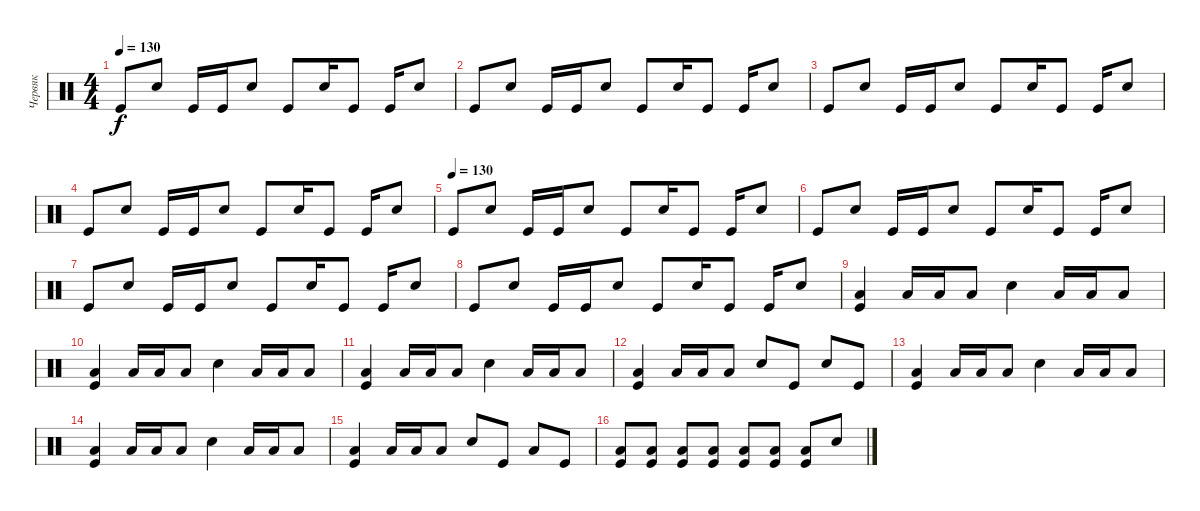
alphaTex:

\track ("Червяк" "Червяк") {instrument percussion}
\staff {score}
\articulation defaults
\ts (4 4)
\tempo 130
\clef neutral
\ks c "Kick (hit)".8{dy f} "Electric Snare (hit)".8 "Kick (hit)".16 "Kick (hit)".16 "Electric Snare (hit)".8 "Kick (hit)".8 "Electric Snare (hit)".16 "Kick (hit)".8 "Kick (hit)".16 "Electric Snare (hit)".8
|
"Kick (hit)".8 "Electric Snare (hit)".8 "Kick (hit)".16 "Kick (hit)".16 "Electric Snare (hit)".8 "Kick (hit)".8 "Electric Snare (hit)".16 "Kick (hit)".8 "Kick (hit)".16 "Electric Snare (hit)".8 |
"Kick (hit)".8 "Electric Snare (hit)".8 "Kick (hit)".16 "Kick (hit)".16 "Electric Snare (hit)".8 "Kick (hit)".8 "Electric Snare (hit)".16 "Kick (hit)".8 "Kick (hit)".16 "Electric Snare (hit)".8 |
"Kick (hit)".8 "Electric Snare (hit)".8 "Kick (hit)".16 "Kick (hit)".16 "Electric Snare (hit)".8 "Kick (hit)".8 "Electric Snare (hit)".16 "Kick (hit)".8 "Kick (hit)".16 "Electric Snare (hit)".8 |
\tempo (130)
"Kick (hit)".8 "Electric Snare (hit)".8 "Kick (hit)".16 "Kick (hit)".16 "Electric Snare (hit)".8 "Kick (hit)".8 "Electric Snare (hit)".16 "Kick (hit)".8 "Kick (hit)".16 "Electric Snare (hit)".8 |
"Kick (hit)".8 "Electric Snare (hit)".8 "Kick (hit)".16 "Kick (hit)".16 "Electric Snare (hit)".8 "Kick (hit)".8 "Electric Snare (hit)".16 "Kick (hit)".8 "Kick (hit)".16 "Electric Snare (hit)".8 |
"Kick (hit)".8 "Electric Snare (hit)".8 "Kick (hit)".16 "Kick (hit)".16 "Electric Snare (hit)".8 "Kick (hit)".8 "Electric Snare (hit)".16 "Kick (hit)".8 "Kick (hit)".16 "Electric Snare (hit)".8 |
"Kick (hit)".8 "Electric Snare (hit)".8 "Kick (hit)".16 "Kick (hit)".16 "Electric Snare (hit)".8 "Kick (hit)".8 "Electric Snare (hit)".16 "Kick (hit)".8 "Kick (hit)".16 "Electric Snare (hit)".8 |
("Kick (hit)" "Low Floor Tom (hit)").4 "Low Floor Tom (hit)".16 "Low Floor Tom (hit)".16 "Low Floor Tom (hit)".8 "Electric Snare (hit)".4 "Low Floor Tom (hit)".16 "Low Floor Tom (hit)".16 "Low Floor Tom (hit)".8 |
("Kick (hit)" "Low Floor Tom (hit)").4 "Low Floor Tom (hit)".16 "Low Floor Tom (hit)".16 "Low Floor Tom (hit)".8 "Electric Snare (hit)".4 "Low Floor Tom (hit)".16 "Low Floor Tom (hit)".16 "Low Floor Tom (hit)".8 |
("Kick (hit)" "Low Floor Tom (hit)").4 "Low Floor Tom (hit)".16 "Low Floor Tom (hit)".16 "Low Floor Tom (hit)".8 "Electric Snare (hit)".4 "Low Floor Tom (hit)".16 "Low Floor Tom (hit)".16 "Low Floor Tom (hit)".8 |
("Kick (hit)" "Low Floor Tom (hit)").4 "Low Floor Tom (hit)".16 "Low Floor Tom (hit)".16 "Low Floor Tom (hit)".8 "Electric Snare (hit)".8 "Kick (hit)".8 "Electric Snare (hit)".8 "Kick (hit)".8 |
("Kick (hit)" "Low Floor Tom (hit)").4 "Low Floor Tom (hit)".16 "Low Floor Tom (hit)".16 "Low Floor Tom (hit)".8 "Electric Snare (hit)".4 "Low Floor Tom (hit)".16 "Low Floor Tom (hit)".16 "Low Floor Tom (hit)".8 |
("Kick (hit)" "Low Floor Tom (hit)").4 "Low Floor Tom (hit)".16 "Low Floor Tom (hit)".16 "Low Floor Tom (hit)".8 "Electric Snare (hit)".4 "Low Floor Tom (hit)".16 "Low Floor Tom (hit)".16 "Low Floor Tom (hit)".8 |
("Kick (hit)" "Low Floor Tom (hit)").4 "Low Floor Tom (hit)".16 "Low Floor Tom (hit)".16 "Low Floor Tom (hit)".8 "Electric Snare (hit)".8 "Kick (hit)".8 "Low Floor Tom (hit)".8 "Kick (hit)".8 |
("Kick (hit)" "Low Floor Tom (hit)").8{volume 14} ("Kick (hit)" "Low Floor Tom (hit)").8 ("Kick (hit)" "Low Floor Tom (hit)").8 ("Kick (hit)" "Low Floor Tom (hit)").8 ("Kick (hit)" "Low Floor Tom (hit)").8 ("Kick (hit)" "Low Floor Tom (hit)").8 ("Kick (hit)" "Low Floor Tom (hit)").8 "Electric Snare (hit)".8
